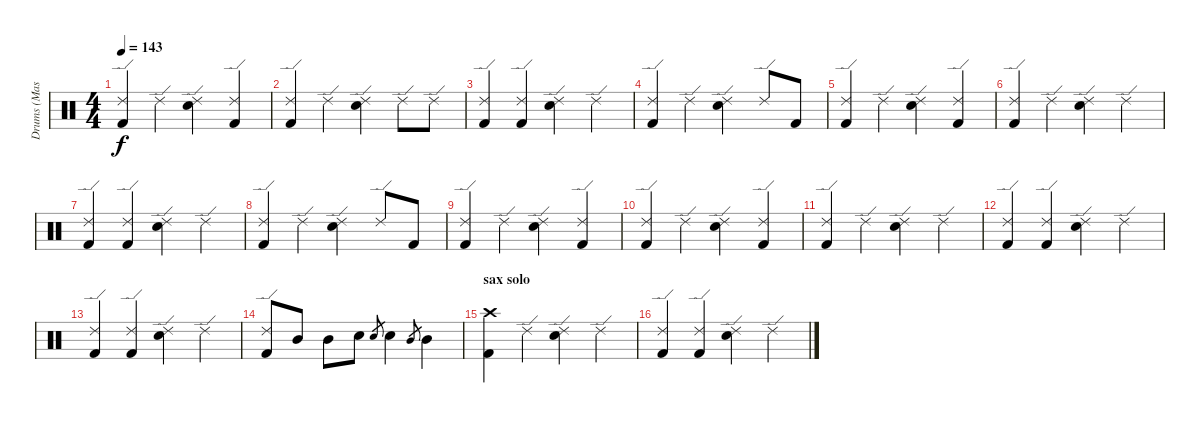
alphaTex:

\track ("Drums (Mason)" "Drums (Mas") {instrument percussion}
\staff {score}
\articulation defaults
\ts (4 4)
\tempo 143
\clef neutral
\ks c
("Ride (edge) 2" "Kick (hit) 2").4{dy f} "Ride (edge) 2".4 ("Ride (edge) 2" "Electric Snare (hit)").4 ("Ride (edge) 2" "Kick (hit) 2").4 |
("Ride (edge) 2" "Kick (hit) 2").4 "Ride (edge) 2".4 ("Ride (edge) 2" "Electric Snare (hit)").4 "Ride (edge) 2".8 "Ride (edge) 2".8 |
("Ride (edge) 2" "Kick (hit) 2").4 ("Ride (edge) 2" "Kick (hit) 2").4 ("Ride (edge) 2" "Electric Snare (hit)").4 "Ride (edge) 2".4 |
("Ride (edge) 2" "Kick (hit) 2").4 "Ride (edge) 2".4 ("Ride (edge) 2" "Electric Snare (hit)").4 "Ride (edge) 2".8 "Kick (hit) 2".8 |
("Ride (edge) 2" "Kick (hit) 2").4 "Ride (edge) 2".4 ("Ride (edge) 2" "Electric Snare (hit)").4 ("Ride (edge) 2" "Kick (hit) 2").4 |
("Ride (edge) 2" "Kick (hit) 2").4 "Ride (edge) 2".4 ("Ride (edge) 2" "Electric Snare (hit)").4 "Ride (edge) 2".4 |
("Ride (edge) 2" "Kick (hit) 2").4 ("Ride (edge) 2" "Kick (hit) 2").4 ("Ride (edge) 2" "Electric Snare (hit)").4 "Ride (edge) 2".4 |
("Ride (edge) 2" "Kick (hit) 2").4 "Ride (edge) 2".4 ("Ride (edge) 2" "Electric Snare (hit)").4 "Ride (edge) 2".8 "Kick (hit) 2".8 |
("Ride (edge) 2" "Kick (hit) 2").4 "Ride (edge) 2".4 ("Ride (edge) 2" "Electric Snare (hit)").4 ("Ride (edge) 2" "Kick (hit) 2").4 |
("Ride (edge) 2" "Kick (hit) 2").4 "Ride (edge) 2".4 ("Ride (edge) 2" "Electric Snare (hit)").4 ("Ride (edge) 2" "Kick (hit) 2").4 |
("Ride (edge) 2" "Kick (hit) 2").4 "Ride (edge) 2".4 ("Ride (edge) 2" "Electric Snare (hit)").4 "Ride (edge) 2".4 |
("Ride (edge) 2" "Kick (hit) 2").4 ("Ride (edge) 2" "Kick (hit) 2").4 ("Ride (edge) 2" "Electric Snare (hit)").4 "Ride (edge) 2".4 |
("Ride (edge) 2" "Kick (hit) 2").4 ("Ride (edge) 2" "Kick (hit) 2").4 ("Ride (edge) 2" "Electric Snare (hit)").4 "Ride (edge) 2".4 |
("Ride (edge) 2" "Kick (hit) 2").8 "Mid Tom (hit)".8 "Mid Tom (hit)".8 "Electric Snare (hit)".8 "Electric Snare (hit)".8{gr} "Electric Snare (hit)".4 "Mid Tom (hit)".8{gr} "Mid Tom (hit)".4 |
\section ("" "sax solo")
("Crash high (hit)" "Kick (hit) 2").4 "Ride (edge) 2".4 ("Ride (edge) 2" "Electric Snare (hit)").4 "Ride (edge) 2".4 |
("Ride (edge) 2" "Kick (hit) 2").4 ("Ride (edge) 2" "Kick (hit) 2").4 ("Ride (edge) 2" "Electric Snare (hit)").4 "Ride (edge) 2".4
